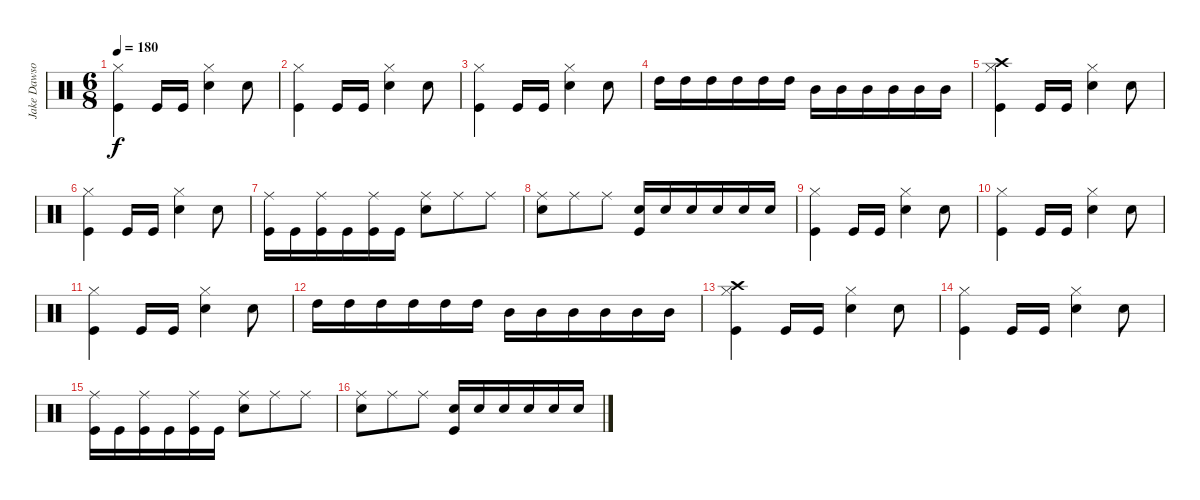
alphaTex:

\track ("Jake Dawson" "Jake Dawso") {instrument percussion}
\staff {score}
\articulation defaults
\ts (6 8)
\tempo 180
\clef neutral
\ks c
("Hi-Hat (closed)" "Kick (hit)").4{dy f} "Kick (hit)".16 "Kick (hit)".16 ("Hi-Hat (closed)" "Snare (hit) 2").4 "Snare (hit) 2".8 |
("Hi-Hat (closed)" "Kick (hit)").4 "Kick (hit)".16 "Kick (hit)".16 ("Hi-Hat (closed)" "Snare (hit) 2").4 "Snare (hit) 2".8 |
("Hi-Hat (closed)" "Kick (hit)").4 "Kick (hit)".16 "Kick (hit)".16 ("Hi-Hat (closed)" "Snare (hit) 2").4 "Snare (hit) 2".8 |
"High Tom (hit)".16 "High Tom (hit)".16 "High Tom (hit)".16 "High Tom (hit)".16 "High Tom (hit)".16 "High Tom (hit)".16 "Mid Tom (hit)".16 "Mid Tom (hit)".16 "Mid Tom (hit)".16 "Mid Tom (hit)".16 "Mid Tom (hit)".16 "Mid Tom (hit)".16 |
("Crash high (hit)" "Hi-Hat (closed)" "Kick (hit)").4 "Kick (hit)".16 "Kick (hit)".16 ("Hi-Hat (closed)" "Snare (hit) 2").4 "Snare (hit) 2".8 |
("Hi-Hat (closed)" "Kick (hit)").4 "Kick (hit)".16 "Kick (hit)".16 ("Hi-Hat (closed)" "Snare (hit) 2").4 "Snare (hit) 2".8 |
("Ride (middle)" "Kick (hit)").16 "Kick (hit)".16 ("Ride (middle)" "Kick (hit)").16 "Kick (hit)".16 ("Ride (middle)" "Kick (hit)").16 "Kick (hit)".16 ("Ride (middle)" "Snare (hit) 2").8 "Ride (middle)".8 "Ride (middle)".8 |
("Ride (middle)" "Snare (hit) 2").8 "Ride (middle)".8 "Ride (middle)".8 ("Snare (hit) 2" "Kick (hit)").16 "Snare (hit) 2".16 "Snare (hit) 2".16 "Snare (hit) 2".16 "Snare (hit) 2".16 "Snare (hit) 2".16 |
("Hi-Hat (closed)" "Kick (hit)").4 "Kick (hit)".16 "Kick (hit)".16 ("Hi-Hat (closed)" "Snare (hit) 2").4 "Snare (hit) 2".8 |
("Hi-Hat (closed)" "Kick (hit)").4 "Kick (hit)".16 "Kick (hit)".16 ("Hi-Hat (closed)" "Snare (hit) 2").4 "Snare (hit) 2".8 |
("Hi-Hat (closed)" "Kick (hit)").4 "Kick (hit)".16 "Kick (hit)".16 ("Hi-Hat (closed)" "Snare (hit) 2").4 "Snare (hit) 2".8 |
"High Tom (hit)".16 "High Tom (hit)".16 "High Tom (hit)".16 "High Tom (hit)".16 "High Tom (hit)".16 "High Tom (hit)".16 "Mid Tom (hit)".16 "Mid Tom (hit)".16 "Mid Tom (hit)".16 "Mid Tom (hit)".16 "Mid Tom (hit)".16 "Mid Tom (hit)".16 |
("Crash high (hit)" "Hi-Hat (closed)" "Kick (hit)").4 "Kick (hit)".16 "Kick (hit)".16 ("Hi-Hat (closed)" "Snare (hit) 2").4 "Snare (hit) 2".8 |
("Hi-Hat (closed)" "Kick (hit)").4 "Kick (hit)".16 "Kick (hit)".16 ("Hi-Hat (closed)" "Snare (hit) 2").4 "Snare (hit) 2".8 |
("Ride (middle)" "Kick (hit)").16 "Kick (hit)".16 ("Ride (middle)" "Kick (hit)").16 "Kick (hit)".16 ("Ride (middle)" "Kick (hit)").16 "Kick (hit)".16 ("Ride (middle)" "Snare (hit) 2").8 "Ride (middle)".8 "Ride (middle)".8 |
("Ride (middle)" "Snare (hit) 2").8 "Ride (middle)".8 "Ride (middle)".8 ("Snare (hit) 2" "Kick (hit)").16 "Snare (hit) 2".16 "Snare (hit) 2".16 "Snare (hit) 2".16 "Snare (hit) 2".16 "Snare (hit) 2".16
